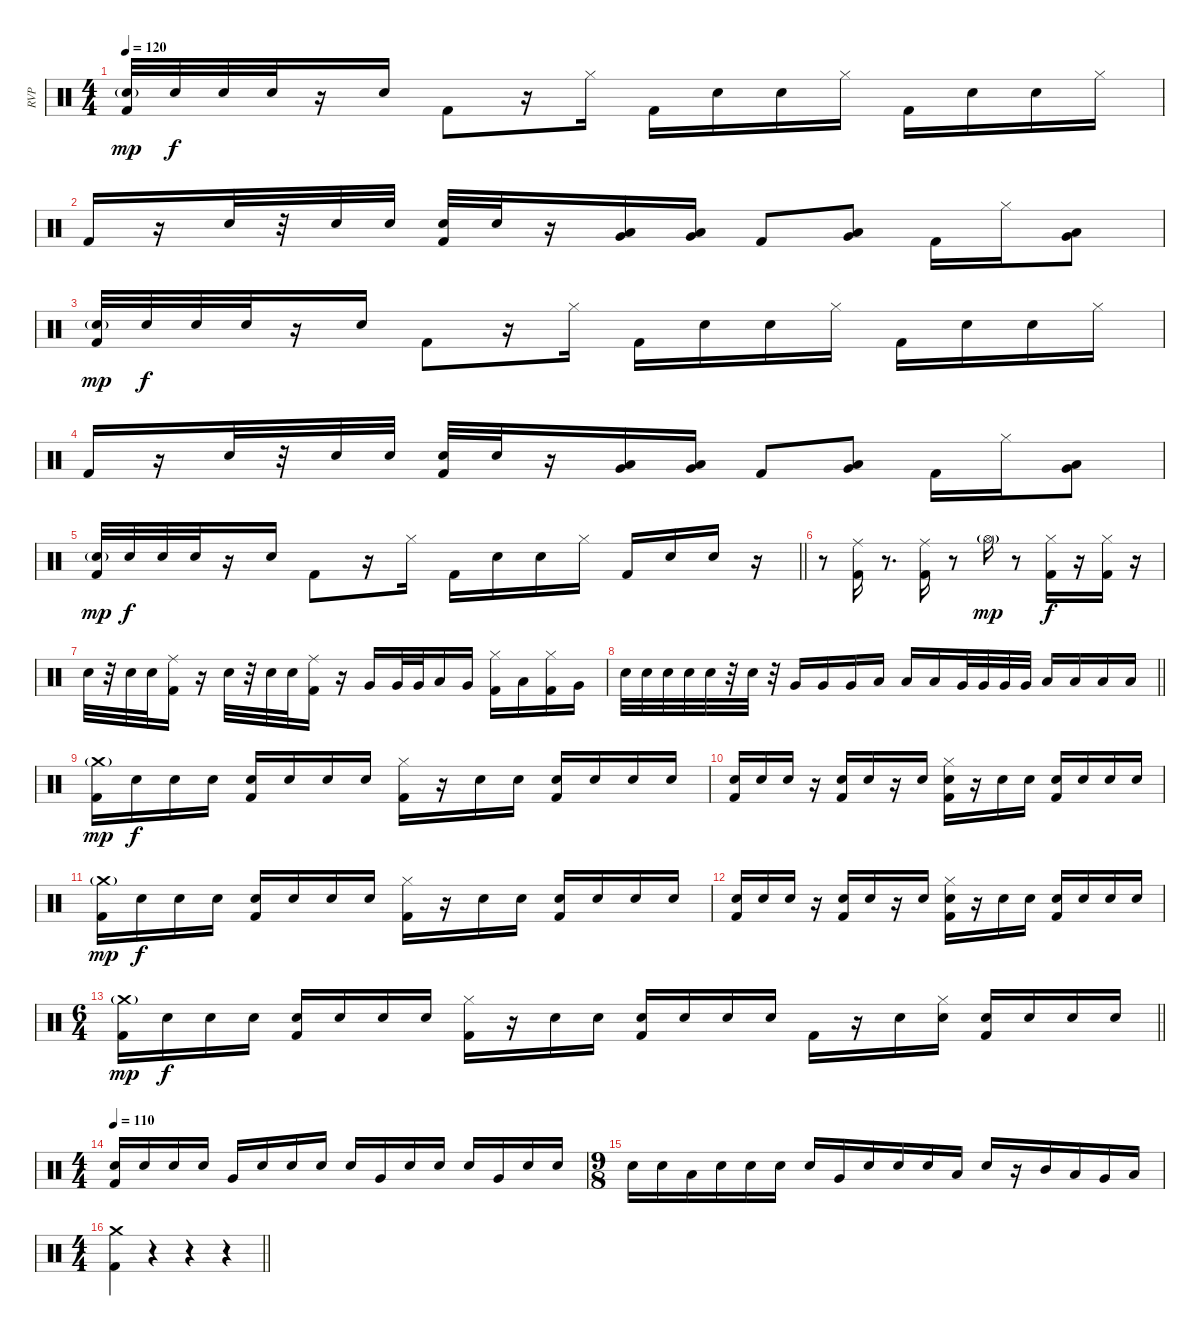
\track ("RVP" "RVP") {instrument percussion}
\staff {score}
\articulation defaults
\ts (4 4)
\tempo 120
\clef neutral
\ks c
("Electric Snare (hit)"{g} "Kick (hit) 2").32{dy mp} "Electric Snare (hit)".32{dy f} "Electric Snare (hit)".32 "Electric Snare (hit)".32 r.16 "Electric Snare (hit)".16 "Kick (hit) 2".8 r.16 "Hi-Hat (closed)".16 "Kick (hit) 2".16 "Electric Snare (hit)".16 "Electric Snare (hit)".16 "Hi-Hat (closed)".16 "Kick (hit) 2".16 "Electric Snare (hit)".16 "Electric Snare (hit)".16 "Hi-Hat (closed)".16 |
"Kick (hit) 2".16 r.16 "Electric Snare (hit)".32 r.32 "Electric Snare (hit)".32 "Electric Snare (hit)".32 ("Electric Snare (hit)" "Kick (hit) 2").32 "Electric Snare (hit)".32 r.16 ("Low Tom (hit)" "Very Low Tom (hit)").16 ("Very Low Tom (hit)" "Low Floor Tom (hit)").16 "Kick (hit) 2".8 ("Very Low Tom (hit)" "Low Floor Tom (hit)").8 "Kick (hit) 2".16 "Hi-Hat (closed)".16 ("Low Tom (hit)" "Very Low Tom (hit)").8 |
("Electric Snare (hit)"{g} "Kick (hit) 2").32{dy mp} "Electric Snare (hit)".32{dy f} "Electric Snare (hit)".32 "Electric Snare (hit)".32 r.16 "Electric Snare (hit)".16 "Kick (hit) 2".8 r.16 "Hi-Hat (closed)".16 "Kick (hit) 2".16 "Electric Snare (hit)".16 "Electric Snare (hit)".16 "Hi-Hat (closed)".16 "Kick (hit) 2".16 "Electric Snare (hit)".16 "Electric Snare (hit)".16 "Hi-Hat (closed)".16 |
"Kick (hit) 2".16 r.16 "Electric Snare (hit)".32 r.32 "Electric Snare (hit)".32 "Electric Snare (hit)".32 ("Electric Snare (hit)" "Kick (hit) 2").32 "Electric Snare (hit)".32 r.16 ("Low Tom (hit)" "Very Low Tom (hit)").16 ("Very Low Tom (hit)" "Low Floor Tom (hit)").16 "Kick (hit) 2".8 ("Very Low Tom (hit)" "Low Floor Tom (hit)").8 "Kick (hit) 2".16 "Hi-Hat (closed)".16 ("Low Tom (hit)" "Very Low Tom (hit)").8 |
\barLineRight lightlight
("Electric Snare (hit)"{g} "Kick (hit) 2").32{dy mp} "Electric Snare (hit)".32{dy f} "Electric Snare (hit)".32 "Electric Snare (hit)".32 r.16 "Electric Snare (hit)".16 "Kick (hit) 2".8 r.16 "Hi-Hat (closed)".16 "Kick (hit) 2".16 "Electric Snare (hit)".16 "Electric Snare (hit)".16 "Hi-Hat (closed)".16 "Kick (hit) 2".16 "Electric Snare (hit)".16 "Electric Snare (hit)".16 r.16 |
r.8 ("Ride (middle)" "Kick (hit) 2").16 r.8{d} ("Ride (middle)" "Kick (hit) 2").16 r.8 "Hi-Hat (open)"{g}.16{dy mp} r.8 ("Hi-Hat (closed)" "Kick (hit) 2").16{dy f} r.16 ("Hi-Hat (closed)" "Kick (hit) 2").16 r.16 |
"Electric Snare (hit)".32 r.32 "Electric Snare (hit)".32 "Electric Snare (hit)".32 ("Ride (middle)" "Kick (hit) 2").16 r.16 "Electric Snare (hit)".32 r.32 "Electric Snare (hit)".32 "Electric Snare (hit)".32 ("Ride (middle)" "Kick (hit) 2").16 r.16 "Very Low Tom (hit)".16 "Very Low Tom (hit)".32 "Very Low Tom (hit)".32 "Low Floor Tom (hit)".16 "Very Low Tom (hit)".16 ("Hi-Hat (closed)" "Kick (hit) 2").16 "Low Tom (hit)".16 ("Hi-Hat (closed)" "Kick (hit) 2").16 "Very Low Tom (hit)".16 |
\barLineRight lightlight "Electric Snare (hit)".32 "Electric Snare (hit)".32 "Electric Snare (hit)".32 "Electric Snare (hit)".32 "Electric Snare (hit)".32
r.32 "Electric Snare (hit)".32 r.32 "Very Low Tom (hit)".16 "Very Low Tom (hit)".16 "Very Low Tom (hit)".16 "Low Tom (hit)".16 "Low Tom (hit)".16 "Low Tom (hit)".16 "Very Low Tom (hit)".32 "Very Low Tom (hit)".32 "Very Low Tom (hit)".32 "Very Low Tom (hit)".32 "Low Floor Tom (hit)".16 "Low Floor Tom (hit)".16 "Low Floor Tom (hit)".16 "Low Floor Tom (hit)".16 |
("Crash medium (hit)"{g} "Kick (hit) 2").16{dy mp} "Electric Snare (hit)".16{dy f} "Electric Snare (hit)".16 "Electric Snare (hit)".16 ("Electric Snare (hit)" "Kick (hit) 2").16 "Electric Snare (hit)".16 "Electric Snare (hit)".16 "Electric Snare (hit)".16 ("Hi-Hat (closed)" "Kick (hit) 2").16 r.16 "Electric Snare (hit)".16 "Electric Snare (hit)".16 ("Electric Snare (hit)" "Kick (hit) 2").16 "Electric Snare (hit)".16 "Electric Snare (hit)".16 "Electric Snare (hit)".16 |
("Electric Snare (hit)" "Kick (hit) 2").16 "Electric Snare (hit)".16 "Electric Snare (hit)".16 r.16 ("Electric Snare (hit)" "Kick (hit) 2").16 "Electric Snare (hit)".16 r.16 "Electric Snare (hit)".16 ("Hi-Hat (closed)" "Electric Snare (hit)" "Kick (hit) 2").16 r.16 "Electric Snare (hit)".16 "Electric Snare (hit)".16 ("Electric Snare (hit)" "Kick (hit) 2").16 "Electric Snare (hit)".16 "Electric Snare (hit)".16 "Electric Snare (hit)".16 |
("Crash medium (hit)"{g} "Kick (hit) 2").16{dy mp} "Electric Snare (hit)".16{dy f} "Electric Snare (hit)".16 "Electric Snare (hit)".16 ("Electric Snare (hit)" "Kick (hit) 2").16 "Electric Snare (hit)".16 "Electric Snare (hit)".16 "Electric Snare (hit)".16 ("Hi-Hat (closed)" "Kick (hit) 2").16 r.16 "Electric Snare (hit)".16 "Electric Snare (hit)".16 ("Electric Snare (hit)" "Kick (hit) 2").16 "Electric Snare (hit)".16 "Electric Snare (hit)".16 "Electric Snare (hit)".16 |
("Electric Snare (hit)" "Kick (hit) 2").16 "Electric Snare (hit)".16 "Electric Snare (hit)".16 r.16 ("Electric Snare (hit)" "Kick (hit) 2").16 "Electric Snare (hit)".16 r.16 "Electric Snare (hit)".16 ("Hi-Hat (closed)" "Electric Snare (hit)" "Kick (hit) 2").16 r.16 "Electric Snare (hit)".16 "Electric Snare (hit)".16 ("Electric Snare (hit)" "Kick (hit) 2").16 "Electric Snare (hit)".16 "Electric Snare (hit)".16 "Electric Snare (hit)".16 |
\ts (6 4)
\barLineRight lightlight
("Crash medium (hit)"{g} "Kick (hit) 2").16{dy mp} "Electric Snare (hit)".16{dy f} "Electric Snare (hit)".16 "Electric Snare (hit)".16 ("Electric Snare (hit)" "Kick (hit) 2").16 "Electric Snare (hit)".16 "Electric Snare (hit)".16 "Electric Snare (hit)".16 ("Hi-Hat (closed)" "Kick (hit) 2").16 r.16 "Electric Snare (hit)".16 "Electric Snare (hit)".16 ("Electric Snare (hit)" "Kick (hit) 2").16 "Electric Snare (hit)".16 "Electric Snare (hit)".16 "Electric Snare (hit)".16 "Kick (hit) 2".16 r.16 "Electric Snare (hit)".16 ("Hi-Hat (closed)" "Electric Snare (hit)").16 ("Electric Snare (hit)" "Kick (hit) 2").16 "Electric Snare (hit)".16 "Electric Snare (hit)".16 "Electric Snare (hit)".16 |
\ts (4 4)
\tempo 110
("Electric Snare (hit)" "Kick (hit) 2").16 "Electric Snare (hit)".16 "Electric Snare (hit)".16 "Electric Snare (hit)".16 "Very Low Tom (hit)".16 "Electric Snare (hit)".16 "Electric Snare (hit)".16 "Electric Snare (hit)".16 "Electric Snare (hit)".16 "Very Low Tom (hit)".16 "Electric Snare (hit)".16 "Electric Snare (hit)".16 "Electric Snare (hit)".16 "Very Low Tom (hit)".16 "Electric Snare (hit)".16 "Electric Snare (hit)".16 |
\ts (9 8)
"Electric Snare (hit)".16 "Electric Snare (hit)".16 "Low Tom (hit)".16 "Electric Snare (hit)".16 "Electric Snare (hit)".16 "Electric Snare (hit)".16 "Electric Snare (hit)".16 "Very Low Tom (hit)".16 "Electric Snare (hit)".16 "Electric Snare (hit)".16 "Electric Snare (hit)".16 "Low Tom (hit)".16 "Electric Snare (hit)".16 r.16 "Mid Tom (hit)".16 "Low Tom (hit)".16 "Very Low Tom (hit)".16 "Low Floor Tom (hit)".16 |
\ts (4 4)
\barLineRight lightlight
("Crash medium (hit)" "Kick (hit) 2").4 r.4 r.4 r.4
